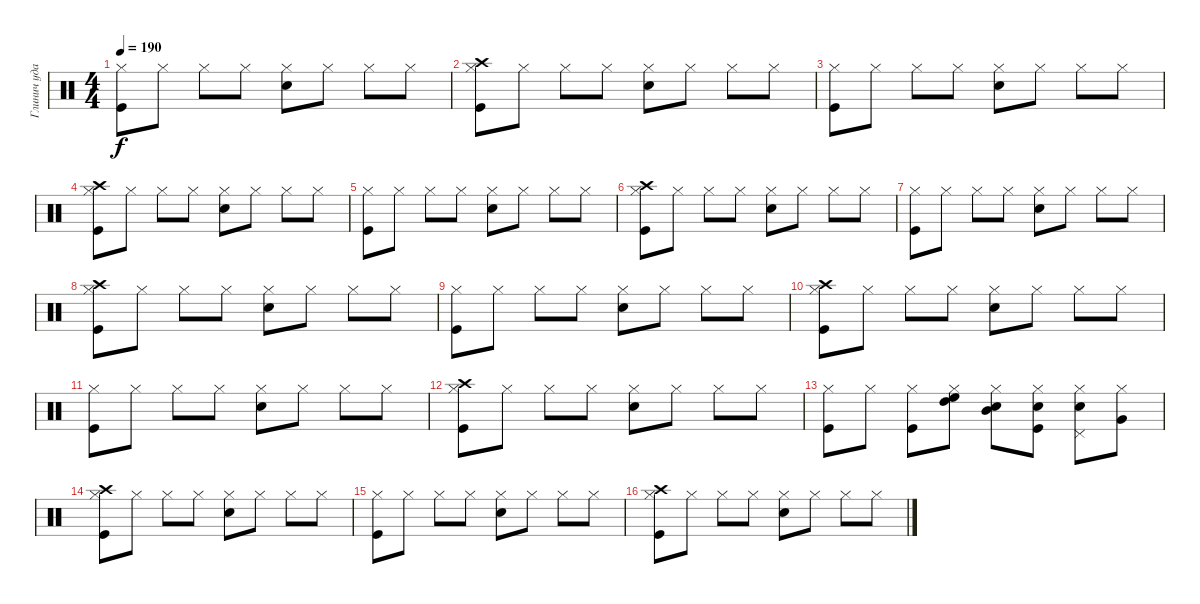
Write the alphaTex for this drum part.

\track ("Глинич ударные" "Глинич уда") {instrument percussion}
\staff {score}
\articulation defaults
\ts (4 4)
\tempo 190
\clef neutral
\ks c
("Hi-Hat (closed)" "Kick (hit)").8{dy f} "Hi-Hat (closed)".8 "Hi-Hat (closed)".8 "Hi-Hat (closed)".8 ("Hi-Hat (closed)" "Snare (hit) 2").8 "Hi-Hat (closed)".8 "Hi-Hat (closed)".8 "Hi-Hat (closed)".8 |
("Hi-Hat (closed)" "Kick (hit)" "Crash high (hit)").8 "Hi-Hat (closed)".8 "Hi-Hat (closed)".8 "Hi-Hat (closed)".8 ("Hi-Hat (closed)" "Snare (hit) 2").8 "Hi-Hat (closed)".8 "Hi-Hat (closed)".8 "Hi-Hat (closed)".8 |
("Hi-Hat (closed)" "Kick (hit)").8 "Hi-Hat (closed)".8 "Hi-Hat (closed)".8 "Hi-Hat (closed)".8 ("Hi-Hat (closed)" "Snare (hit) 2").8 "Hi-Hat (closed)".8 "Hi-Hat (closed)".8 "Hi-Hat (closed)".8 |
("Hi-Hat (closed)" "Kick (hit)" "Crash high (hit)").8 "Hi-Hat (closed)".8 "Hi-Hat (closed)".8 "Hi-Hat (closed)".8 ("Hi-Hat (closed)" "Snare (hit) 2").8 "Hi-Hat (closed)".8 "Hi-Hat (closed)".8 "Hi-Hat (closed)".8 |
("Hi-Hat (closed)" "Kick (hit)").8 "Hi-Hat (closed)".8 "Hi-Hat (closed)".8 "Hi-Hat (closed)".8 ("Hi-Hat (closed)" "Snare (hit) 2").8 "Hi-Hat (closed)".8 "Hi-Hat (closed)".8 "Hi-Hat (closed)".8 |
("Hi-Hat (closed)" "Kick (hit)" "Crash high (hit)").8 "Hi-Hat (closed)".8 "Hi-Hat (closed)".8 "Hi-Hat (closed)".8 ("Hi-Hat (closed)" "Snare (hit) 2").8 "Hi-Hat (closed)".8 "Hi-Hat (closed)".8 "Hi-Hat (closed)".8 |
("Hi-Hat (closed)" "Kick (hit)").8 "Hi-Hat (closed)".8 "Hi-Hat (closed)".8 "Hi-Hat (closed)".8 ("Hi-Hat (closed)" "Snare (hit) 2").8 "Hi-Hat (closed)".8 "Hi-Hat (closed)".8 "Hi-Hat (closed)".8 |
("Hi-Hat (closed)" "Kick (hit)" "Crash high (hit)").8 "Hi-Hat (closed)".8 "Hi-Hat (closed)".8 "Hi-Hat (closed)".8 ("Hi-Hat (closed)" "Snare (hit) 2").8 "Hi-Hat (closed)".8 "Hi-Hat (closed)".8 "Hi-Hat (closed)".8 |
("Hi-Hat (closed)" "Kick (hit)").8 "Hi-Hat (closed)".8 "Hi-Hat (closed)".8 "Hi-Hat (closed)".8 ("Hi-Hat (closed)" "Snare (hit) 2").8 "Hi-Hat (closed)".8 "Hi-Hat (closed)".8 "Hi-Hat (closed)".8 |
("Hi-Hat (closed)" "Kick (hit)" "Crash high (hit)").8 "Hi-Hat (closed)".8 "Hi-Hat (closed)".8 "Hi-Hat (closed)".8 ("Hi-Hat (closed)" "Snare (hit) 2").8 "Hi-Hat (closed)".8 "Hi-Hat (closed)".8 "Hi-Hat (closed)".8 |
("Hi-Hat (closed)" "Kick (hit)").8 "Hi-Hat (closed)".8 "Hi-Hat (closed)".8 "Hi-Hat (closed)".8 ("Hi-Hat (closed)" "Snare (hit) 2").8 "Hi-Hat (closed)".8 "Hi-Hat (closed)".8 "Hi-Hat (closed)".8 |
("Hi-Hat (closed)" "Kick (hit)" "Crash high (hit)").8 "Hi-Hat (closed)".8 "Hi-Hat (closed)".8 "Hi-Hat (closed)".8 ("Hi-Hat (closed)" "Snare (hit) 2").8 "Hi-Hat (closed)".8 "Hi-Hat (closed)".8 "Hi-Hat (closed)".8 |
("Hi-Hat (closed)" "Kick (hit)").8 "Hi-Hat (closed)".8 ("Hi-Hat (closed)" "Kick (hit)").8 ("Hi-Hat (closed)" "High Tom (hit)" "High Floor Tom (hit)").8 ("Hi-Hat (closed)" "Mid Tom (hit)" "Snare (hit) 2").8 ("Hi-Hat (closed)" "Kick (hit)" "Snare (hit) 2").8 ("Hi-Hat (closed)" "Pedal Hi-Hat (hit)" "Snare (hit) 2").8 ("Hi-Hat (closed)" "Very Low Tom (hit)").8 |
("Hi-Hat (closed)" "Kick (hit)" "Crash high (hit)").8 "Hi-Hat (closed)".8 "Hi-Hat (closed)".8 "Hi-Hat (closed)".8 ("Hi-Hat (closed)" "Snare (hit) 2").8 "Hi-Hat (closed)".8 "Hi-Hat (closed)".8 "Hi-Hat (closed)".8 |
("Hi-Hat (closed)" "Kick (hit)").8 "Hi-Hat (closed)".8 "Hi-Hat (closed)".8 "Hi-Hat (closed)".8 ("Hi-Hat (closed)" "Snare (hit) 2").8 "Hi-Hat (closed)".8 "Hi-Hat (closed)".8 "Hi-Hat (closed)".8 |
("Hi-Hat (closed)" "Kick (hit)" "Crash high (hit)").8 "Hi-Hat (closed)".8 "Hi-Hat (closed)".8 "Hi-Hat (closed)".8 ("Hi-Hat (closed)" "Snare (hit) 2").8 "Hi-Hat (closed)".8 "Hi-Hat (closed)".8 "Hi-Hat (closed)".8
